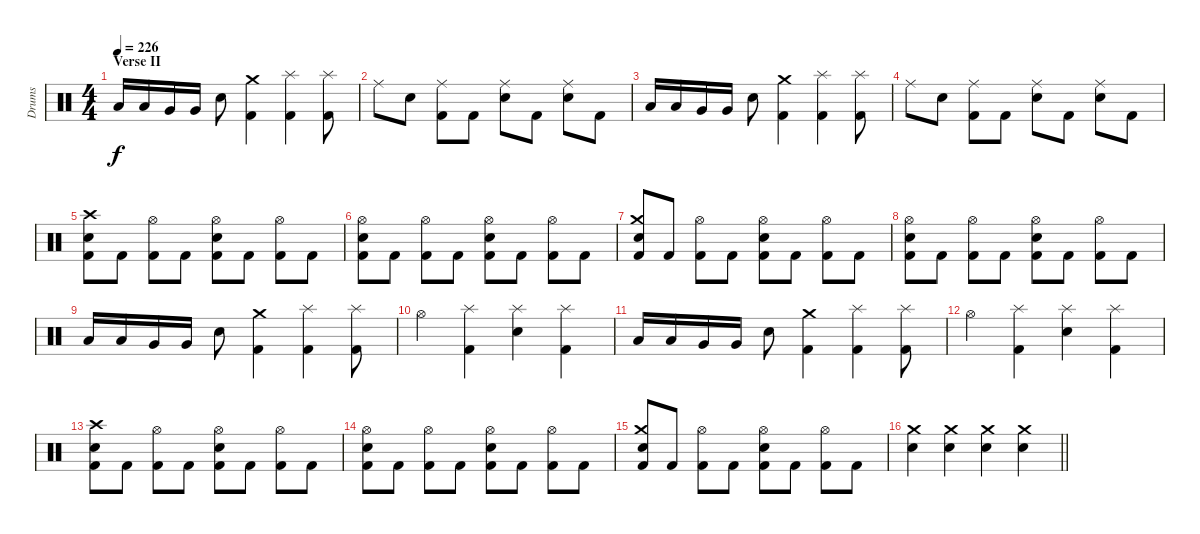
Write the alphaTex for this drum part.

\track ("Drums" "Drums") {instrument percussion}
\staff {score}
\articulation defaults
\ts (4 4)
\section ("" "Verse II")
\tempo 226
\clef neutral
\ks c "Low Tom (hit)".16{dy f} "Low Tom (hit)".16 "Very Low Tom (hit)".16 "Very Low Tom (hit)".16 "Snare (hit) 2".8
("Crash medium (hit)" "Kick (hit) 2").4 ("Splash (hit)" "Kick (hit) 2").4 ("Splash (hit)" "Kick (hit) 2").8 |
"Ride (middle)".8 "Snare (hit) 2".8 ("Ride (middle)" "Kick (hit) 2").8 "Kick (hit) 2".8 ("Ride (middle)" "Snare (hit) 2").8 "Kick (hit) 2".8 ("Ride (middle)" "Snare (hit) 2").8 "Kick (hit) 2".8 |
"Low Tom (hit)".16 "Low Tom (hit)".16 "Very Low Tom (hit)".16 "Very Low Tom (hit)".16 "Snare (hit) 2".8 ("Crash medium (hit)" "Kick (hit) 2").4 ("Splash (hit)" "Kick (hit) 2").4 ("Splash (hit)" "Kick (hit) 2").8 |
"Ride (middle)".8 "Snare (hit) 2".8 ("Ride (middle)" "Kick (hit) 2").8 "Kick (hit) 2".8 ("Ride (middle)" "Snare (hit) 2").8 "Kick (hit) 2".8 ("Ride (middle)" "Snare (hit) 2").8 "Kick (hit) 2".8 |
("Crash high (hit)" "Snare (hit) 2" "Kick (hit) 2").8 "Kick (hit) 2".8 ("Hi-Hat (open)" "Kick (hit) 2").8 "Kick (hit) 2".8 ("Hi-Hat (open)" "Snare (hit) 2" "Kick (hit) 2").8 "Kick (hit) 2".8 ("Hi-Hat (open)" "Kick (hit) 2").8 "Kick (hit) 2".8 |
("Hi-Hat (open)" "Snare (hit) 2" "Kick (hit) 2").8 "Kick (hit) 2".8 ("Hi-Hat (open)" "Kick (hit) 2").8 "Kick (hit) 2".8 ("Hi-Hat (open)" "Snare (hit) 2" "Kick (hit) 2").8 "Kick (hit) 2".8 ("Hi-Hat (open)" "Kick (hit) 2").8 "Kick (hit) 2".8 |
("Crash medium (hit)" "Snare (hit) 2" "Kick (hit) 2").8 "Kick (hit) 2".8 ("Hi-Hat (open)" "Kick (hit) 2").8 "Kick (hit) 2".8 ("Hi-Hat (open)" "Snare (hit) 2" "Kick (hit) 2").8 "Kick (hit) 2".8 ("Hi-Hat (open)" "Kick (hit) 2").8 "Kick (hit) 2".8 |
("Hi-Hat (open)" "Snare (hit) 2" "Kick (hit) 2").8 "Kick (hit) 2".8 ("Hi-Hat (open)" "Kick (hit) 2").8 "Kick (hit) 2".8 ("Hi-Hat (open)" "Snare (hit) 2" "Kick (hit) 2").8 "Kick (hit) 2".8 ("Hi-Hat (open)" "Kick (hit) 2").8 "Kick (hit) 2".8 |
"Low Tom (hit)".16 "Low Tom (hit)".16 "Very Low Tom (hit)".16 "Very Low Tom (hit)".16 "Snare (hit) 2".8 ("Crash medium (hit)" "Kick (hit) 2").4 ("Splash (hit)" "Kick (hit) 2").4 ("Splash (hit)" "Kick (hit) 2").8 |
"Hi-Hat (open)".4 ("Splash (hit)" "Kick (hit) 2").4 ("Splash (hit)" "Snare (hit) 2").4 ("Splash (hit)" "Kick (hit) 2").4 |
"Low Tom (hit)".16 "Low Tom (hit)".16 "Very Low Tom (hit)".16 "Very Low Tom (hit)".16 "Snare (hit) 2".8 ("Crash medium (hit)" "Kick (hit) 2").4 ("Splash (hit)" "Kick (hit) 2").4 ("Splash (hit)" "Kick (hit) 2").8 |
"Hi-Hat (open)".4 ("Splash (hit)" "Kick (hit) 2").4 ("Splash (hit)" "Snare (hit) 2").4 ("Splash (hit)" "Kick (hit) 2").4 |
("Crash high (hit)" "Snare (hit) 2" "Kick (hit) 2").8 "Kick (hit) 2".8 ("Hi-Hat (open)" "Kick (hit) 2").8 "Kick (hit) 2".8 ("Hi-Hat (open)" "Snare (hit) 2" "Kick (hit) 2").8 "Kick (hit) 2".8 ("Hi-Hat (open)" "Kick (hit) 2").8 "Kick (hit) 2".8 |
("Hi-Hat (open)" "Snare (hit) 2" "Kick (hit) 2").8 "Kick (hit) 2".8 ("Hi-Hat (open)" "Kick (hit) 2").8 "Kick (hit) 2".8 ("Hi-Hat (open)" "Snare (hit) 2" "Kick (hit) 2").8 "Kick (hit) 2".8 ("Hi-Hat (open)" "Kick (hit) 2").8 "Kick (hit) 2".8 |
("Crash medium (hit)" "Snare (hit) 2" "Kick (hit) 2").8 "Kick (hit) 2".8 ("Hi-Hat (open)" "Kick (hit) 2").8 "Kick (hit) 2".8 ("Hi-Hat (open)" "Snare (hit) 2" "Kick (hit) 2").8 "Kick (hit) 2".8 ("Hi-Hat (open)" "Kick (hit) 2").8 "Kick (hit) 2".8 |
\barLineRight lightlight
("Crash medium (hit)" "Snare (hit) 2").4 ("Crash medium (hit)" "Snare (hit) 2").4 ("Crash medium (hit)" "Snare (hit) 2").4 ("Crash medium (hit)" "Snare (hit) 2").4
